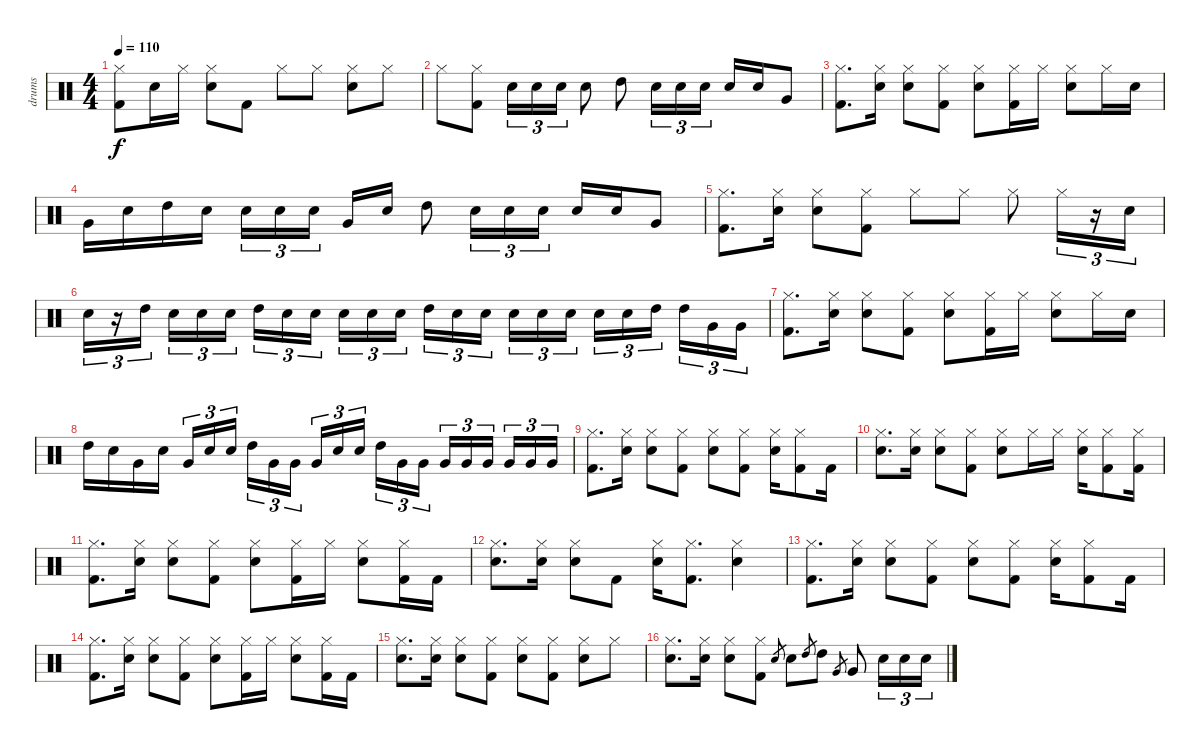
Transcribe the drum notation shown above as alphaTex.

\track ("drums" "drums") {instrument percussion}
\staff {score}
\articulation defaults
\ts (4 4)
\tempo 110
\clef neutral
\ks c
("Hi-Hat (closed)" "Kick (hit) 2").8{dy f} "Snare (hit) 2".16 "Hi-Hat (closed)".16 ("Hi-Hat (closed)" "Snare (hit) 2").8 "Kick (hit) 2".8 "Hi-Hat (closed)".8 "Hi-Hat (closed)".8 ("Snare (hit) 2" "Hi-Hat (closed)").8 "Hi-Hat (closed)".8 |
"Hi-Hat (closed)".8 ("Hi-Hat (closed)" "Kick (hit) 2").8 "Snare (hit) 2".16{tu (3 2)} "Snare (hit) 2".16{tu (3 2)} "Snare (hit) 2".16{tu (3 2)} "Snare (hit) 2".8 "High Tom (hit)".8 "Snare (hit) 2".16{tu (3 2)} "Snare (hit) 2".16{tu (3 2)} "Snare (hit) 2".16{tu (3 2)} "Snare (hit) 2".16 "Snare (hit) 2".16 "Very Low Tom (hit)".8 |
("Hi-Hat (closed)" "Kick (hit) 2").8{d} ("Snare (hit) 2" "Hi-Hat (closed)").16 ("Snare (hit) 2" "Hi-Hat (closed)").8 ("Kick (hit) 2" "Hi-Hat (closed)").8 ("Hi-Hat (closed)" "Snare (hit) 2").8 ("Hi-Hat (closed)" "Kick (hit) 2").16 "Hi-Hat (closed)".16 ("Hi-Hat (closed)" "Snare (hit) 2").8 "Hi-Hat (closed)".16 "Snare (hit) 2".16 |
"Very Low Tom (hit)".16 "Snare (hit) 2".16 "High Tom (hit)".16 "Snare (hit) 2".16 "Snare (hit) 2".16{tu (3 2)} "Snare (hit) 2".16{tu (3 2)} "Snare (hit) 2".16{tu (3 2) beam splitsecondary} "Very Low Tom (hit)".16 "Snare (hit) 2".16 "High Tom (hit)".8 "Snare (hit) 2".16{tu (3 2)} "Snare (hit) 2".16{tu (3 2)} "Snare (hit) 2".16{tu (3 2)} "Snare (hit) 2".16 "Snare (hit) 2".16 "Very Low Tom (hit)".8 |
("Hi-Hat (closed)" "Kick (hit) 2").8{d} ("Snare (hit) 2" "Hi-Hat (closed)").16 ("Snare (hit) 2" "Hi-Hat (closed)").8 ("Kick (hit) 2" "Hi-Hat (closed)").8 "Hi-Hat (closed)".8 "Hi-Hat (closed)".8 "Hi-Hat (closed)".8 "Hi-Hat (closed)".16{tu (3 2)} r.16{tu (3 2)} "Snare (hit) 2".16{tu (3 2)} |
"Snare (hit) 2".16{tu (3 2)} r.16{tu (3 2)} "High Tom (hit)".16{tu (3 2) beam splitsecondary} "Snare (hit) 2".16{tu (3 2)} "Snare (hit) 2".16{tu (3 2)} "Snare (hit) 2".16{tu (3 2)} "High Tom (hit)".16{tu (3 2)} "Snare (hit) 2".16{tu (3 2)} "Snare (hit) 2".16{tu (3 2) beam splitsecondary} "Snare (hit) 2".16{tu (3 2)} "Snare (hit) 2".16{tu (3 2)} "Snare (hit) 2".16{tu (3 2)} "High Tom (hit)".16{tu (3 2)} "Snare (hit) 2".16{tu (3 2)} "Snare (hit) 2".16{tu (3 2) beam splitsecondary} "Snare (hit) 2".16{tu (3 2)} "Snare (hit) 2".16{tu (3 2)} "Snare (hit) 2".16{tu (3 2)} "Snare (hit) 2".16{tu (3 2)} "Snare (hit) 2".16{tu (3 2)} "High Tom (hit)".16{tu (3 2) beam splitsecondary} "High Tom (hit)".16{tu (3 2)} "Very Low Tom (hit)".16{tu (3 2)} "Very Low Tom (hit)".16{tu (3 2)} |
("Hi-Hat (closed)" "Kick (hit) 2").8{d} ("Snare (hit) 2" "Hi-Hat (closed)").16 ("Snare (hit) 2" "Hi-Hat (closed)").8 ("Kick (hit) 2" "Hi-Hat (closed)").8 ("Hi-Hat (closed)" "Snare (hit) 2").8 ("Hi-Hat (closed)" "Kick (hit) 2").16 "Hi-Hat (closed)".16 ("Hi-Hat (closed)" "Snare (hit) 2").8 "Hi-Hat (closed)".16 "Snare (hit) 2".16 |
"High Tom (hit)".16 "Snare (hit) 2".16 "Very Low Tom (hit)".16 "Snare (hit) 2".16 "Very Low Tom (hit)".16{tu (3 2)} "Snare (hit) 2".16{tu (3 2)} "Snare (hit) 2".16{tu (3 2) beam splitsecondary} "High Tom (hit)".16{tu (3 2)} "Very Low Tom (hit)".16{tu (3 2)} "Very Low Tom (hit)".16{tu (3 2)} "Very Low Tom (hit)".16{tu (3 2)} "Snare (hit) 2".16{tu (3 2)} "Snare (hit) 2".16{tu (3 2) beam splitsecondary} "High Tom (hit)".16{tu (3 2)} "Very Low Tom (hit)".16{tu (3 2)} "Very Low Tom (hit)".16{tu (3 2)} "Very Low Tom (hit)".16{tu (3 2)} "Very Low Tom (hit)".16{tu (3 2)} "Very Low Tom (hit)".16{tu (3 2) beam splitsecondary} "Very Low Tom (hit)".16{tu (3 2)} "Very Low Tom (hit)".16{tu (3 2)} "Very Low Tom (hit)".16{tu (3 2)} |
("Kick (hit) 2" "Hi-Hat (closed)").8{d} ("Snare (hit) 2" "Hi-Hat (closed)").16 ("Hi-Hat (closed)" "Snare (hit) 2").8 ("Hi-Hat (closed)" "Kick (hit) 2").8 ("Snare (hit) 2" "Hi-Hat (closed)").8 ("Hi-Hat (closed)" "Kick (hit) 2").8 ("Hi-Hat (closed)" "Snare (hit) 2").16 ("Hi-Hat (closed)" "Kick (hit) 2").8 "Kick (hit) 2".16 |
("Hi-Hat (closed)" "Snare (hit) 2").8{d} ("Hi-Hat (closed)" "Snare (hit) 2").16 ("Hi-Hat (closed)" "Snare (hit) 2").8 ("Hi-Hat (closed)" "Kick (hit) 2").8 ("Snare (hit) 2" "Hi-Hat (closed)").8 "Hi-Hat (closed)".16 "Hi-Hat (closed)".16 ("Hi-Hat (closed)" "Snare (hit) 2").16 ("Hi-Hat (closed)" "Kick (hit) 2").8 ("Hi-Hat (closed)" "Kick (hit) 2").16 |
("Hi-Hat (closed)" "Kick (hit) 2").8{d} ("Snare (hit) 2" "Hi-Hat (closed)").16 ("Snare (hit) 2" "Hi-Hat (closed)").8 ("Kick (hit) 2" "Hi-Hat (closed)").8 ("Hi-Hat (closed)" "Snare (hit) 2").8 ("Hi-Hat (closed)" "Kick (hit) 2").16 "Hi-Hat (closed)".16 ("Hi-Hat (closed)" "Snare (hit) 2").8 ("Hi-Hat (closed)" "Kick (hit) 2").16 "Kick (hit) 2".16 |
("Hi-Hat (closed)" "Snare (hit) 2").8{d} ("Hi-Hat (closed)" "Snare (hit) 2").16 ("Hi-Hat (closed)" "Snare (hit) 2").8 "Kick (hit) 2".8 ("Hi-Hat (closed)" "Snare (hit) 2").16 ("Kick (hit) 2" "Hi-Hat (closed)").8{d} ("Hi-Hat (closed)" "Snare (hit) 2").4 |
("Kick (hit) 2" "Hi-Hat (closed)").8{d} ("Snare (hit) 2" "Hi-Hat (closed)").16 ("Hi-Hat (closed)" "Snare (hit) 2").8 ("Hi-Hat (closed)" "Kick (hit) 2").8 ("Snare (hit) 2" "Hi-Hat (closed)").8 ("Hi-Hat (closed)" "Kick (hit) 2").8 ("Hi-Hat (closed)" "Snare (hit) 2").16 ("Hi-Hat (closed)" "Kick (hit) 2").8 "Kick (hit) 2".16 |
("Hi-Hat (closed)" "Kick (hit) 2").8{d} ("Snare (hit) 2" "Hi-Hat (closed)").16 ("Snare (hit) 2" "Hi-Hat (closed)").8 ("Kick (hit) 2" "Hi-Hat (closed)").8 ("Hi-Hat (closed)" "Snare (hit) 2").8 ("Hi-Hat (closed)" "Kick (hit) 2").16 "Hi-Hat (closed)".16 ("Hi-Hat (closed)" "Snare (hit) 2").8 ("Hi-Hat (closed)" "Kick (hit) 2").16 "Kick (hit) 2".16 |
("Hi-Hat (closed)" "Snare (hit) 2").8{d} ("Hi-Hat (closed)" "Snare (hit) 2").16 ("Hi-Hat (closed)" "Snare (hit) 2").8 ("Hi-Hat (closed)" "Kick (hit) 2").8 ("Hi-Hat (closed)" "Snare (hit) 2").8 ("Hi-Hat (closed)" "Kick (hit) 2").8 ("Snare (hit) 2" "Hi-Hat (closed)").8 "Hi-Hat (closed)".8 |
("Snare (hit) 2" "Hi-Hat (closed)").8{d} ("Hi-Hat (closed)" "Snare (hit) 2").16 ("Hi-Hat (closed)" "Snare (hit) 2").8 ("Hi-Hat (closed)" "Kick (hit) 2").8 "Snare (hit) 2".8{gr} "Snare (hit) 2".8 "High Tom (hit)".8{gr} "High Tom (hit)".8 "Very Low Tom (hit)".8{gr} "Very Low Tom (hit)".8 "Snare (hit) 2".16{tu (3 2)} "Snare (hit) 2".16{tu (3 2)} "Snare (hit) 2".16{tu (3 2)}
